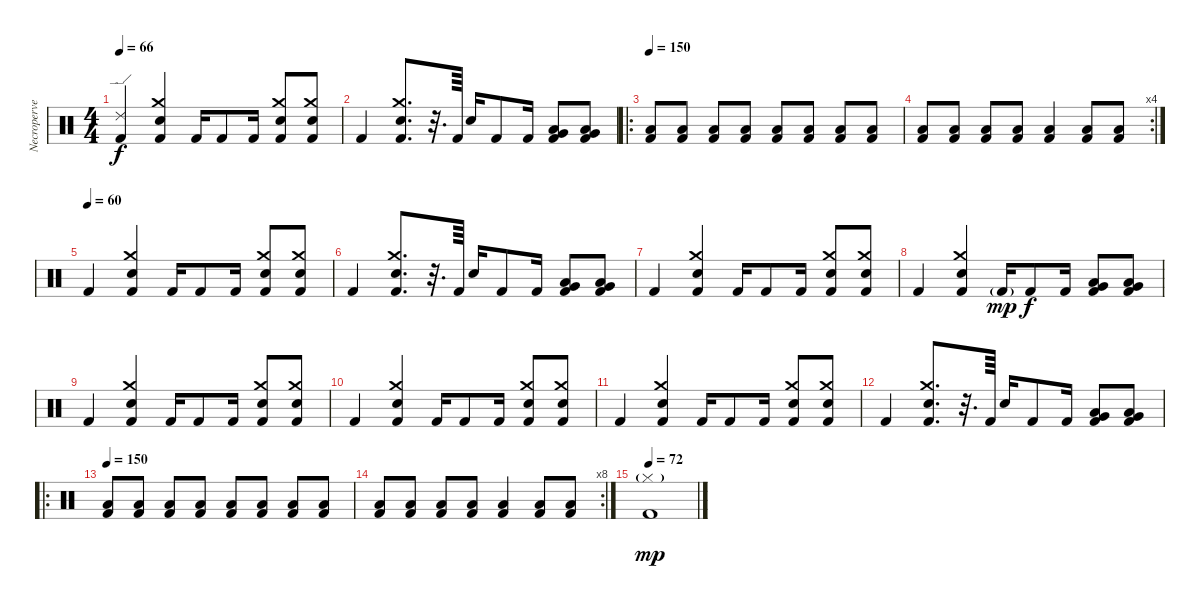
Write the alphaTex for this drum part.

\track ("Necroperversor" "Necroperve") {instrument percussion}
\staff {score}
\articulation defaults
\ts (4 4)
\tempo 66
\clef neutral
\ks c
("Ride (edge) 2" "Kick (hit) 2").4{dy f} ("Crash medium (hit)" "Electric Snare (hit)" "Kick (hit) 2").4 "Kick (hit) 2".16 "Kick (hit) 2".8 "Kick (hit) 2".16 ("Crash medium (hit)" "Electric Snare (hit)" "Kick (hit) 2").8 ("Crash medium (hit)" "Electric Snare (hit)" "Kick (hit) 2").8 |
"Kick (hit) 2".4 ("Crash medium (hit)" "Electric Snare (hit)" "Kick (hit) 2").8{d} r.32{d} "Kick (hit) 2".64 "Electric Snare (hit)".16 "Kick (hit) 2".8 "Kick (hit) 2".16 ("Low Tom (hit)" "Very Low Tom (hit)" "Kick (hit) 2").8 ("Low Tom (hit)" "Very Low Tom (hit)" "Kick (hit) 2").8 |
\ro
\tempo 150
("Low Floor Tom (hit)" "Kick (hit) 2").8 ("Low Floor Tom (hit)" "Kick (hit) 2").8 ("Low Floor Tom (hit)" "Kick (hit) 2").8 ("Low Floor Tom (hit)" "Kick (hit) 2").8 ("Low Floor Tom (hit)" "Kick (hit) 2").8 ("Low Floor Tom (hit)" "Kick (hit) 2").8 ("Low Floor Tom (hit)" "Kick (hit) 2").8 ("Low Floor Tom (hit)" "Kick (hit) 2").8 |
\rc 4
("Low Floor Tom (hit)" "Kick (hit) 2").8 ("Low Floor Tom (hit)" "Kick (hit) 2").8 ("Low Floor Tom (hit)" "Kick (hit) 2").8 ("Low Floor Tom (hit)" "Kick (hit) 2").8 ("Low Floor Tom (hit)" "Kick (hit) 2").4 ("Low Floor Tom (hit)" "Kick (hit) 2").8 ("Low Floor Tom (hit)" "Kick (hit) 2").8 |
\tempo 66
\tempo (60)
"Kick (hit) 2".4 ("Crash medium (hit)" "Electric Snare (hit)" "Kick (hit) 2").4 "Kick (hit) 2".16 "Kick (hit) 2".8 "Kick (hit) 2".16 ("Crash medium (hit)" "Electric Snare (hit)" "Kick (hit) 2").8 ("Crash medium (hit)" "Electric Snare (hit)" "Kick (hit) 2").8 |
"Kick (hit) 2".4 ("Crash medium (hit)" "Electric Snare (hit)" "Kick (hit) 2").8{d} r.32{d} "Kick (hit) 2".64 "Electric Snare (hit)".16 "Kick (hit) 2".8 "Kick (hit) 2".16 ("Low Tom (hit)" "Very Low Tom (hit)" "Kick (hit) 2").8 ("Low Tom (hit)" "Very Low Tom (hit)" "Kick (hit) 2").8 |
"Kick (hit) 2".4 ("Crash medium (hit)" "Electric Snare (hit)" "Kick (hit) 2").4 "Kick (hit) 2".16 "Kick (hit) 2".8 "Kick (hit) 2".16 ("Crash medium (hit)" "Electric Snare (hit)" "Kick (hit) 2").8 ("Crash medium (hit)" "Electric Snare (hit)" "Kick (hit) 2").8 |
"Kick (hit) 2".4 ("Crash medium (hit)" "Electric Snare (hit)" "Kick (hit) 2").4 "Kick (hit) 2"{g}.16{dy mp} "Kick (hit) 2".8{dy f} "Kick (hit) 2".16 ("Low Tom (hit)" "Very Low Tom (hit)" "Kick (hit) 2").8 ("Low Tom (hit)" "Very Low Tom (hit)" "Kick (hit) 2").8 |
"Kick (hit) 2".4 ("Crash medium (hit)" "Electric Snare (hit)" "Kick (hit) 2").4 "Kick (hit) 2".16 "Kick (hit) 2".8 "Kick (hit) 2".16 ("Crash medium (hit)" "Electric Snare (hit)" "Kick (hit) 2").8 ("Crash medium (hit)" "Electric Snare (hit)" "Kick (hit) 2").8 |
"Kick (hit) 2".4 ("Crash medium (hit)" "Electric Snare (hit)" "Kick (hit) 2").4 "Kick (hit) 2".16 "Kick (hit) 2".8 "Kick (hit) 2".16 ("Crash medium (hit)" "Electric Snare (hit)" "Kick (hit) 2").8 ("Crash medium (hit)" "Electric Snare (hit)" "Kick (hit) 2").8 |
"Kick (hit) 2".4 ("Crash medium (hit)" "Electric Snare (hit)" "Kick (hit) 2").4 "Kick (hit) 2".16 "Kick (hit) 2".8 "Kick (hit) 2".16 ("Crash medium (hit)" "Electric Snare (hit)" "Kick (hit) 2").8 ("Crash medium (hit)" "Electric Snare (hit)" "Kick (hit) 2").8 |
"Kick (hit) 2".4 ("Crash medium (hit)" "Electric Snare (hit)" "Kick (hit) 2").8{d} r.32{d} "Kick (hit) 2".64 "Electric Snare (hit)".16 "Kick (hit) 2".8 "Kick (hit) 2".16 ("Low Tom (hit)" "Very Low Tom (hit)" "Kick (hit) 2").8 ("Low Tom (hit)" "Very Low Tom (hit)" "Kick (hit) 2").8 |
\ro
\tempo 150
("Low Floor Tom (hit)" "Kick (hit) 2").8 ("Low Floor Tom (hit)" "Kick (hit) 2").8 ("Low Floor Tom (hit)" "Kick (hit) 2").8 ("Low Floor Tom (hit)" "Kick (hit) 2").8 ("Low Floor Tom (hit)" "Kick (hit) 2").8 ("Low Floor Tom (hit)" "Kick (hit) 2").8 ("Low Floor Tom (hit)" "Kick (hit) 2").8 ("Low Floor Tom (hit)" "Kick (hit) 2").8 |
\rc 8
("Low Floor Tom (hit)" "Kick (hit) 2").8 ("Low Floor Tom (hit)" "Kick (hit) 2").8 ("Low Floor Tom (hit)" "Kick (hit) 2").8 ("Low Floor Tom (hit)" "Kick (hit) 2").8 ("Low Floor Tom (hit)" "Kick (hit) 2").4 ("Low Floor Tom (hit)" "Kick (hit) 2").8 ("Low Floor Tom (hit)" "Kick (hit) 2").8 |
\tempo 80
\tempo 72
("Hi-Hat (closed)"{g} "Kick (hit) 2").1{dy mp}
